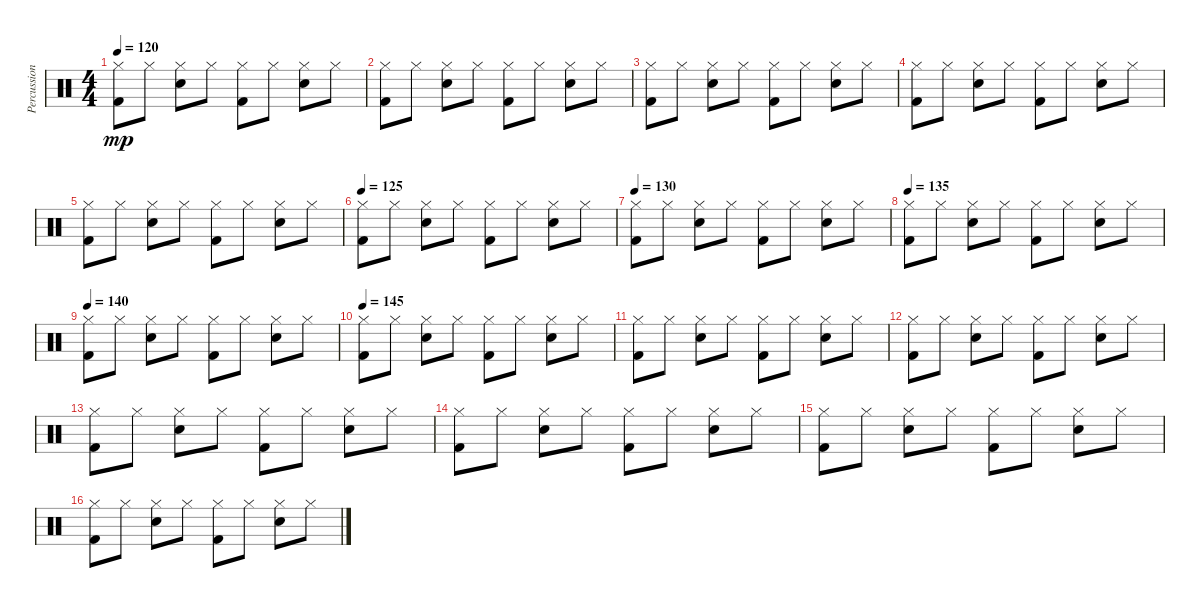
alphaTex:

\track ("Percussion" "Percussion") {instrument percussion}
\staff {score}
\articulation defaults
\ts (4 4)
\tempo 120
\clef neutral
\ks c
("Hi-Hat (closed)" "Kick (hit) 2").8{dy mp} "Hi-Hat (closed)".8 ("Hi-Hat (closed)" "Snare (hit) 2").8 "Hi-Hat (closed)".8 ("Hi-Hat (closed)" "Kick (hit) 2").8 "Hi-Hat (closed)".8 ("Hi-Hat (closed)" "Snare (hit) 2").8 "Hi-Hat (closed)".8 |
("Hi-Hat (closed)" "Kick (hit) 2").8 "Hi-Hat (closed)".8 ("Hi-Hat (closed)" "Snare (hit) 2").8 "Hi-Hat (closed)".8 ("Hi-Hat (closed)" "Kick (hit) 2").8 "Hi-Hat (closed)".8 ("Hi-Hat (closed)" "Snare (hit) 2").8 "Hi-Hat (closed)".8 |
("Hi-Hat (closed)" "Kick (hit) 2").8 "Hi-Hat (closed)".8 ("Hi-Hat (closed)" "Snare (hit) 2").8 "Hi-Hat (closed)".8 ("Hi-Hat (closed)" "Kick (hit) 2").8 "Hi-Hat (closed)".8 ("Hi-Hat (closed)" "Snare (hit) 2").8 "Hi-Hat (closed)".8 |
("Hi-Hat (closed)" "Kick (hit) 2").8 "Hi-Hat (closed)".8 ("Hi-Hat (closed)" "Snare (hit) 2").8 "Hi-Hat (closed)".8 ("Hi-Hat (closed)" "Kick (hit) 2").8 "Hi-Hat (closed)".8 ("Hi-Hat (closed)" "Snare (hit) 2").8 "Hi-Hat (closed)".8 |
("Hi-Hat (closed)" "Kick (hit) 2").8 "Hi-Hat (closed)".8 ("Hi-Hat (closed)" "Snare (hit) 2").8 "Hi-Hat (closed)".8 ("Hi-Hat (closed)" "Kick (hit) 2").8 "Hi-Hat (closed)".8 ("Hi-Hat (closed)" "Snare (hit) 2").8 "Hi-Hat (closed)".8 |
\tempo 125
("Hi-Hat (closed)" "Kick (hit) 2").8 "Hi-Hat (closed)".8 ("Hi-Hat (closed)" "Snare (hit) 2").8 "Hi-Hat (closed)".8 ("Hi-Hat (closed)" "Kick (hit) 2").8 "Hi-Hat (closed)".8 ("Hi-Hat (closed)" "Snare (hit) 2").8 "Hi-Hat (closed)".8 |
\tempo 130
("Hi-Hat (closed)" "Kick (hit) 2").8 "Hi-Hat (closed)".8 ("Hi-Hat (closed)" "Snare (hit) 2").8 "Hi-Hat (closed)".8 ("Hi-Hat (closed)" "Kick (hit) 2").8 "Hi-Hat (closed)".8 ("Hi-Hat (closed)" "Snare (hit) 2").8 "Hi-Hat (closed)".8 |
\tempo 135
("Hi-Hat (closed)" "Kick (hit) 2").8 "Hi-Hat (closed)".8 ("Hi-Hat (closed)" "Snare (hit) 2").8 "Hi-Hat (closed)".8 ("Hi-Hat (closed)" "Kick (hit) 2").8 "Hi-Hat (closed)".8 ("Hi-Hat (closed)" "Snare (hit) 2").8 "Hi-Hat (closed)".8 |
\tempo 140
("Hi-Hat (closed)" "Kick (hit) 2").8 "Hi-Hat (closed)".8 ("Hi-Hat (closed)" "Snare (hit) 2").8 "Hi-Hat (closed)".8 ("Hi-Hat (closed)" "Kick (hit) 2").8 "Hi-Hat (closed)".8 ("Hi-Hat (closed)" "Snare (hit) 2").8 "Hi-Hat (closed)".8 |
\tempo 145
("Hi-Hat (closed)" "Kick (hit) 2").8 "Hi-Hat (closed)".8 ("Hi-Hat (closed)" "Snare (hit) 2").8 "Hi-Hat (closed)".8 ("Hi-Hat (closed)" "Kick (hit) 2").8 "Hi-Hat (closed)".8 ("Hi-Hat (closed)" "Snare (hit) 2").8 "Hi-Hat (closed)".8 |
("Hi-Hat (closed)" "Kick (hit) 2").8 "Hi-Hat (closed)".8 ("Hi-Hat (closed)" "Snare (hit) 2").8 "Hi-Hat (closed)".8 ("Hi-Hat (closed)" "Kick (hit) 2").8 "Hi-Hat (closed)".8 ("Hi-Hat (closed)" "Snare (hit) 2").8 "Hi-Hat (closed)".8 |
("Hi-Hat (closed)" "Kick (hit) 2").8 "Hi-Hat (closed)".8 ("Hi-Hat (closed)" "Snare (hit) 2").8 "Hi-Hat (closed)".8 ("Hi-Hat (closed)" "Kick (hit) 2").8 "Hi-Hat (closed)".8 ("Hi-Hat (closed)" "Snare (hit) 2").8 "Hi-Hat (closed)".8 |
("Hi-Hat (closed)" "Kick (hit) 2").8 "Hi-Hat (closed)".8 ("Hi-Hat (closed)" "Snare (hit) 2").8 "Hi-Hat (closed)".8 ("Hi-Hat (closed)" "Kick (hit) 2").8 "Hi-Hat (closed)".8 ("Hi-Hat (closed)" "Snare (hit) 2").8 "Hi-Hat (closed)".8 |
("Hi-Hat (closed)" "Kick (hit) 2").8 "Hi-Hat (closed)".8 ("Hi-Hat (closed)" "Snare (hit) 2").8 "Hi-Hat (closed)".8 ("Hi-Hat (closed)" "Kick (hit) 2").8 "Hi-Hat (closed)".8 ("Hi-Hat (closed)" "Snare (hit) 2").8 "Hi-Hat (closed)".8 |
("Hi-Hat (closed)" "Kick (hit) 2").8 "Hi-Hat (closed)".8 ("Hi-Hat (closed)" "Snare (hit) 2").8 "Hi-Hat (closed)".8 ("Hi-Hat (closed)" "Kick (hit) 2").8 "Hi-Hat (closed)".8 ("Hi-Hat (closed)" "Snare (hit) 2").8 "Hi-Hat (closed)".8 |
("Hi-Hat (closed)" "Kick (hit) 2").8 "Hi-Hat (closed)".8 ("Hi-Hat (closed)" "Snare (hit) 2").8 "Hi-Hat (closed)".8 ("Hi-Hat (closed)" "Kick (hit) 2").8 "Hi-Hat (closed)".8 ("Hi-Hat (closed)" "Snare (hit) 2").8 "Hi-Hat (closed)".8
